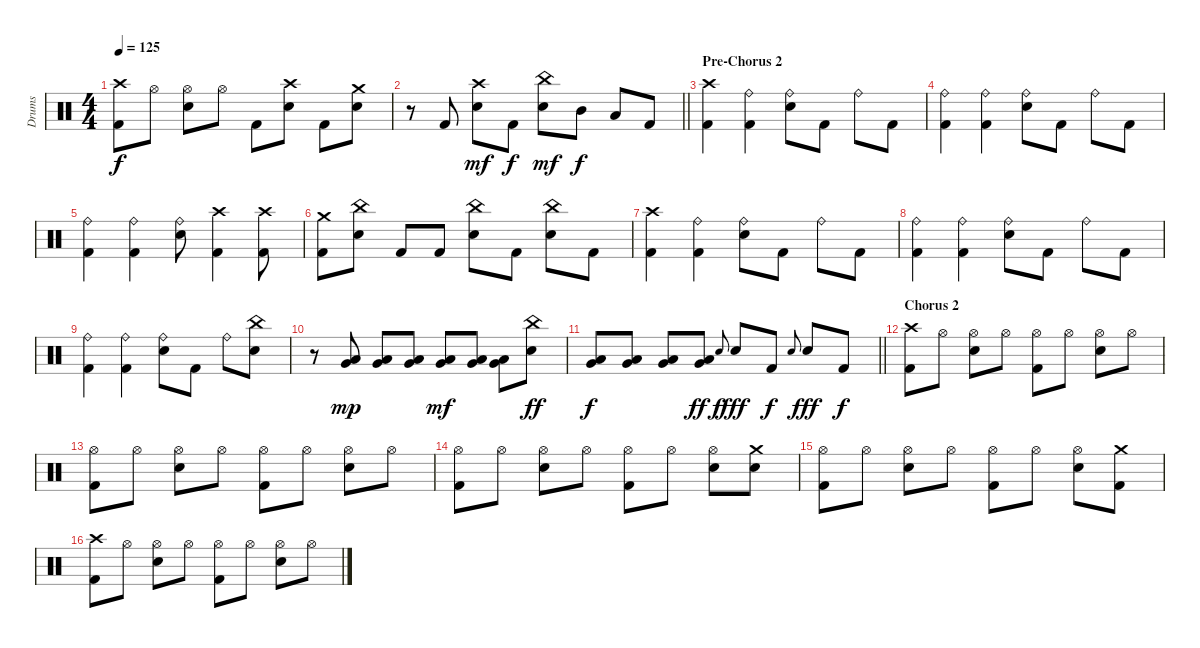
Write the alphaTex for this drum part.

\track ("Drums" "Drums") {instrument percussion}
\staff {score}
\articulation defaults
\ts (4 4)
\tempo 125
\clef neutral
\ks c
("Crash high (hit)" "Kick (hit) 2").8{dy f} "Hi-Hat (open)".8 ("Hi-Hat (open)" "Electric Snare (hit)").8 "Hi-Hat (open)".8 "Kick (hit) 2".8 ("Crash high (hit)" "Electric Snare (hit)").8 "Kick (hit) 2".8 ("Crash medium (hit)" "Electric Snare (hit)").8 |
\barLineRight lightlight
r.8 "Kick (hit) 2".8 ("Crash high (hit)" "Electric Snare (hit)").8{dy mf} "Kick (hit) 2".8{dy f} ("China (hit)" "Electric Snare (hit)").8{dy mf} "Mid Tom (hit)".8{dy f} "Low Tom (hit)".8 "Kick (hit) 2".8 |
\section ("" "Pre-Chorus 2")
("Crash high (hit)" "Kick (hit) 2").4 ("Ride (bell)" "Kick (hit) 2").4 ("Ride (bell)" "Electric Snare (hit)").8 "Kick (hit) 2".8 "Ride (bell)".8 "Kick (hit) 2".8 |
("Ride (bell)" "Kick (hit) 2").4 ("Ride (bell)" "Kick (hit) 2").4 ("Ride (bell)" "Electric Snare (hit)").8 "Kick (hit) 2".8 "Ride (bell)".8 "Kick (hit) 2".8 |
("Ride (bell)" "Kick (hit) 2").4 ("Ride (bell)" "Kick (hit) 2").4 ("Ride (bell)" "Electric Snare (hit)").8 ("Crash high (hit)" "Kick (hit) 2").4 ("Crash high (hit)" "Kick (hit) 2").8 |
("Crash medium (hit)" "Kick (hit) 2").8 ("China (hit)" "Electric Snare (hit)").8 "Kick (hit) 2".8 "Kick (hit) 2".8 ("China (hit)" "Electric Snare (hit)").8 "Kick (hit) 2".8 ("China (hit)" "Electric Snare (hit)").8 "Kick (hit) 2".8 |
("Crash high (hit)" "Kick (hit) 2").4 ("Ride (bell)" "Kick (hit) 2").4 ("Ride (bell)" "Electric Snare (hit)").8 "Kick (hit) 2".8 "Ride (bell)".8 "Kick (hit) 2".8 |
("Ride (bell)" "Kick (hit) 2").4 ("Ride (bell)" "Kick (hit) 2").4 ("Ride (bell)" "Electric Snare (hit)").8 "Kick (hit) 2".8 "Ride (bell)".8 "Kick (hit) 2".8 |
("Ride (bell)" "Kick (hit) 2").4 ("Ride (bell)" "Kick (hit) 2").4 ("Ride (bell)" "Electric Snare (hit)").8 "Kick (hit) 2".8 "Ride (bell)".8 ("China (hit)" "Electric Snare (hit)").8 |
r.8 ("Very Low Tom (hit)" "Low Floor Tom (hit)").8{dy mp} ("Very Low Tom (hit)" "Low Floor Tom (hit)").8 ("Very Low Tom (hit)" "Low Floor Tom (hit)").8 ("Very Low Tom (hit)" "Low Floor Tom (hit)").8{dy mf} ("Very Low Tom (hit)" "Low Floor Tom (hit)").8 ("Very Low Tom (hit)" "Low Floor Tom (hit)").8 ("China (hit)" "Electric Snare (hit)").8{dy ff} |
\barLineRight lightlight
("Very Low Tom (hit)" "Low Floor Tom (hit)").8{dy f} ("Very Low Tom (hit)" "Low Floor Tom (hit)").8 ("Very Low Tom (hit)" "Low Floor Tom (hit)").8 ("Very Low Tom (hit)" "Low Floor Tom (hit)").8{dy ff} "Electric Snare (hit)".8{gr onbeat dy f} "Electric Snare (hit)".8{dy fff} "Kick (hit) 2".8{dy f} "Electric Snare (hit)".8{gr onbeat} "Electric Snare (hit)".8{dy fff} "Kick (hit) 2".8{dy f} |
\section ("" "Chorus 2")
("Crash high (hit)" "Kick (hit) 2").8 "Hi-Hat (open)".8 ("Hi-Hat (open)" "Electric Snare (hit)").8 "Hi-Hat (open)".8 ("Hi-Hat (open)" "Kick (hit) 2").8 "Hi-Hat (open)".8 ("Hi-Hat (open)" "Electric Snare (hit)").8 "Hi-Hat (open)".8 |
("Hi-Hat (open)" "Kick (hit) 2").8 "Hi-Hat (open)".8 ("Hi-Hat (open)" "Electric Snare (hit)").8 "Hi-Hat (open)".8 ("Hi-Hat (open)" "Kick (hit) 2").8 "Hi-Hat (open)".8 ("Hi-Hat (open)" "Electric Snare (hit)").8 "Hi-Hat (open)".8 |
("Hi-Hat (open)" "Kick (hit) 2").8 "Hi-Hat (open)".8 ("Hi-Hat (open)" "Electric Snare (hit)").8 "Hi-Hat (open)".8 ("Hi-Hat (open)" "Kick (hit) 2").8 "Hi-Hat (open)".8 ("Hi-Hat (open)" "Electric Snare (hit)").8 ("Crash medium (hit)" "Electric Snare (hit)").8 |
("Hi-Hat (open)" "Kick (hit) 2").8 "Hi-Hat (open)".8 ("Hi-Hat (open)" "Electric Snare (hit)").8 "Hi-Hat (open)".8 ("Hi-Hat (open)" "Kick (hit) 2").8 "Hi-Hat (open)".8 ("Hi-Hat (open)" "Electric Snare (hit)").8 ("Crash medium (hit)" "Kick (hit) 2").8 |
("Crash high (hit)" "Kick (hit) 2").8 "Hi-Hat (open)".8 ("Hi-Hat (open)" "Electric Snare (hit)").8 "Hi-Hat (open)".8 ("Hi-Hat (open)" "Kick (hit) 2").8 "Hi-Hat (open)".8 ("Hi-Hat (open)" "Electric Snare (hit)").8 "Hi-Hat (open)".8
